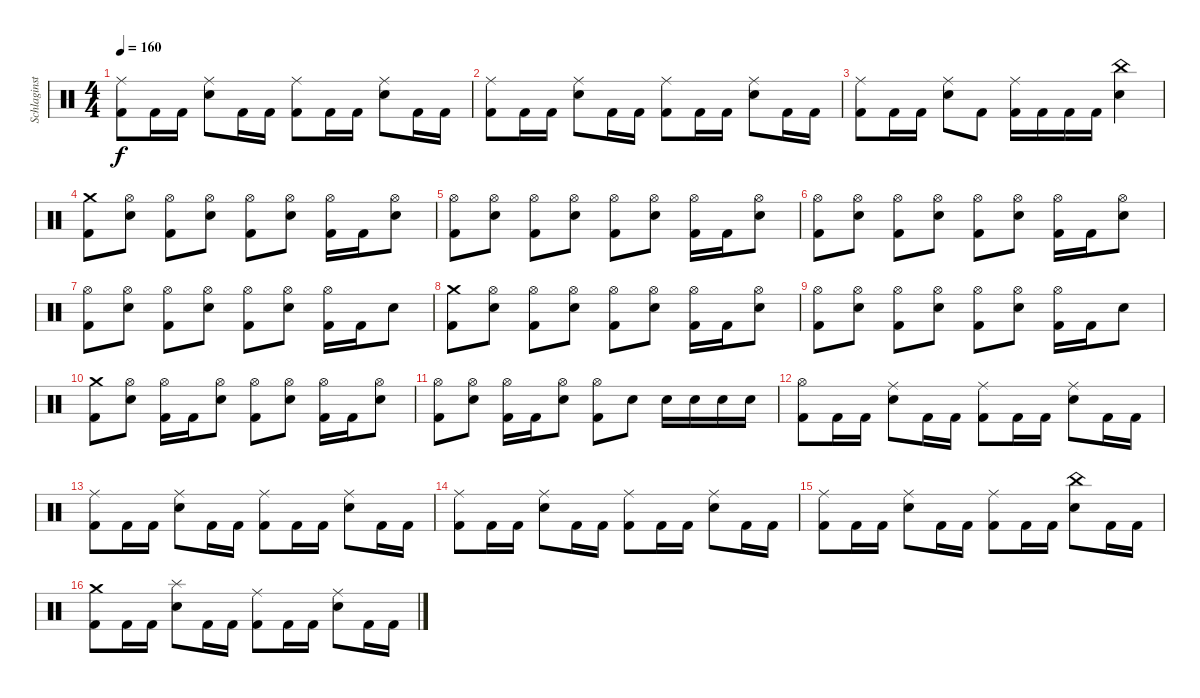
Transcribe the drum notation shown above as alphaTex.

\track ("Schlaginstrumente - Auswahl" "Schlaginst") {instrument percussion}
\staff {score}
\articulation defaults
\ts (4 4)
\tempo 160
\clef neutral
\ks c
("Ride (middle)" "Kick (hit) 2").8{dy f} "Kick (hit) 2".16 "Kick (hit) 2".16 ("Ride (middle)" "Snare (hit) 2").8 "Kick (hit) 2".16 "Kick (hit) 2".16 ("Ride (middle)" "Kick (hit) 2").8 "Kick (hit) 2".16 "Kick (hit) 2".16 ("Ride (middle)" "Snare (hit) 2").8 "Kick (hit) 2".16 "Kick (hit) 2".16 |
("Ride (middle)" "Kick (hit) 2").8 "Kick (hit) 2".16 "Kick (hit) 2".16 ("Ride (middle)" "Snare (hit) 2").8 "Kick (hit) 2".16 "Kick (hit) 2".16 ("Ride (middle)" "Kick (hit) 2").8 "Kick (hit) 2".16 "Kick (hit) 2".16 ("Ride (middle)" "Snare (hit) 2").8 "Kick (hit) 2".16 "Kick (hit) 2".16 |
("Ride (middle)" "Kick (hit) 2").8 "Kick (hit) 2".16 "Kick (hit) 2".16 ("Ride (middle)" "Snare (hit) 2").8 "Kick (hit) 2".8 ("Ride (middle)" "Kick (hit) 2").16 "Kick (hit) 2".16 "Kick (hit) 2".16 "Kick (hit) 2".16 ("China (hit)" "Snare (hit) 2").4 |
("Crash medium (hit)" "Kick (hit) 2").8 ("Hi-Hat (open)" "Snare (hit) 2").8 ("Hi-Hat (open)" "Kick (hit) 2").8 ("Hi-Hat (open)" "Snare (hit) 2").8 ("Hi-Hat (open)" "Kick (hit) 2").8 ("Hi-Hat (open)" "Snare (hit) 2").8 ("Hi-Hat (open)" "Kick (hit) 2").16 "Kick (hit) 2".16 ("Hi-Hat (open)" "Snare (hit) 2").8 |
("Hi-Hat (open)" "Kick (hit) 2").8 ("Hi-Hat (open)" "Snare (hit) 2").8 ("Hi-Hat (open)" "Kick (hit) 2").8 ("Hi-Hat (open)" "Snare (hit) 2").8 ("Hi-Hat (open)" "Kick (hit) 2").8 ("Hi-Hat (open)" "Snare (hit) 2").8 ("Hi-Hat (open)" "Kick (hit) 2").16 "Kick (hit) 2".16 ("Hi-Hat (open)" "Snare (hit) 2").8 |
("Hi-Hat (open)" "Kick (hit) 2").8 ("Hi-Hat (open)" "Snare (hit) 2").8 ("Hi-Hat (open)" "Kick (hit) 2").8 ("Hi-Hat (open)" "Snare (hit) 2").8 ("Hi-Hat (open)" "Kick (hit) 2").8 ("Hi-Hat (open)" "Snare (hit) 2").8 ("Hi-Hat (open)" "Kick (hit) 2").16 "Kick (hit) 2".16 ("Hi-Hat (open)" "Snare (hit) 2").8 |
("Hi-Hat (open)" "Kick (hit) 2").8 ("Hi-Hat (open)" "Snare (hit) 2").8 ("Hi-Hat (open)" "Kick (hit) 2").8 ("Hi-Hat (open)" "Snare (hit) 2").8 ("Hi-Hat (open)" "Kick (hit) 2").8 ("Hi-Hat (open)" "Snare (hit) 2").8 ("Hi-Hat (open)" "Kick (hit) 2").16 "Kick (hit) 2".16 "Snare (hit) 2".8 |
("Crash medium (hit)" "Kick (hit) 2").8 ("Hi-Hat (open)" "Snare (hit) 2").8 ("Hi-Hat (open)" "Kick (hit) 2").8 ("Hi-Hat (open)" "Snare (hit) 2").8 ("Hi-Hat (open)" "Kick (hit) 2").8 ("Hi-Hat (open)" "Snare (hit) 2").8 ("Hi-Hat (open)" "Kick (hit) 2").16 "Kick (hit) 2".16 ("Hi-Hat (open)" "Snare (hit) 2").8 |
("Hi-Hat (open)" "Kick (hit) 2").8 ("Hi-Hat (open)" "Snare (hit) 2").8 ("Hi-Hat (open)" "Kick (hit) 2").8 ("Hi-Hat (open)" "Snare (hit) 2").8 ("Hi-Hat (open)" "Kick (hit) 2").8 ("Hi-Hat (open)" "Snare (hit) 2").8 ("Hi-Hat (open)" "Kick (hit) 2").16 "Kick (hit) 2".16 "Snare (hit) 2".8 |
("Crash medium (hit)" "Kick (hit) 2").8 ("Hi-Hat (open)" "Snare (hit) 2").8 ("Hi-Hat (open)" "Kick (hit) 2").16 "Kick (hit) 2".16 ("Hi-Hat (open)" "Snare (hit) 2").8 ("Hi-Hat (open)" "Kick (hit) 2").8 ("Hi-Hat (open)" "Snare (hit) 2").8 ("Hi-Hat (open)" "Kick (hit) 2").16 "Kick (hit) 2".16 ("Hi-Hat (open)" "Snare (hit) 2").8 |
("Hi-Hat (open)" "Kick (hit) 2").8 ("Hi-Hat (open)" "Snare (hit) 2").8 ("Hi-Hat (open)" "Kick (hit) 2").16 "Kick (hit) 2".16 ("Hi-Hat (open)" "Snare (hit) 2").8 ("Hi-Hat (open)" "Kick (hit) 2").8 "Snare (hit) 2".8 "Snare (hit) 2".16 "Snare (hit) 2".16 "Snare (hit) 2".16 "Snare (hit) 2".16 |
("Hi-Hat (open)" "Kick (hit) 2").8 "Kick (hit) 2".16 "Kick (hit) 2".16 ("Ride (middle)" "Snare (hit) 2").8 "Kick (hit) 2".16 "Kick (hit) 2".16 ("Ride (middle)" "Kick (hit) 2").8 "Kick (hit) 2".16 "Kick (hit) 2".16 ("Ride (middle)" "Snare (hit) 2").8 "Kick (hit) 2".16 "Kick (hit) 2".16 |
("Ride (middle)" "Kick (hit) 2").8 "Kick (hit) 2".16 "Kick (hit) 2".16 ("Ride (middle)" "Snare (hit) 2").8 "Kick (hit) 2".16 "Kick (hit) 2".16 ("Ride (middle)" "Kick (hit) 2").8 "Kick (hit) 2".16 "Kick (hit) 2".16 ("Ride (middle)" "Snare (hit) 2").8 "Kick (hit) 2".16 "Kick (hit) 2".16 |
("Ride (middle)" "Kick (hit) 2").8 "Kick (hit) 2".16 "Kick (hit) 2".16 ("Ride (middle)" "Snare (hit) 2").8 "Kick (hit) 2".16 "Kick (hit) 2".16 ("Ride (middle)" "Kick (hit) 2").8 "Kick (hit) 2".16 "Kick (hit) 2".16 ("Ride (middle)" "Snare (hit) 2").8 "Kick (hit) 2".16 "Kick (hit) 2".16 |
("Ride (middle)" "Kick (hit) 2").8 "Kick (hit) 2".16 "Kick (hit) 2".16 ("Ride (middle)" "Snare (hit) 2").8 "Kick (hit) 2".16 "Kick (hit) 2".16 ("Ride (middle)" "Kick (hit) 2").8 "Kick (hit) 2".16 "Kick (hit) 2".16 ("China (hit)" "Snare (hit) 2").8 "Kick (hit) 2".16 "Kick (hit) 2".16 |
("Crash medium (hit)" "Kick (hit) 2").8 "Kick (hit) 2".16 "Kick (hit) 2".16 ("Splash (hit)" "Snare (hit) 2").8 "Kick (hit) 2".16 "Kick (hit) 2".16 ("Ride (middle)" "Kick (hit) 2").8 "Kick (hit) 2".16 "Kick (hit) 2".16 ("Ride (middle)" "Snare (hit) 2").8 "Kick (hit) 2".16 "Kick (hit) 2".16
